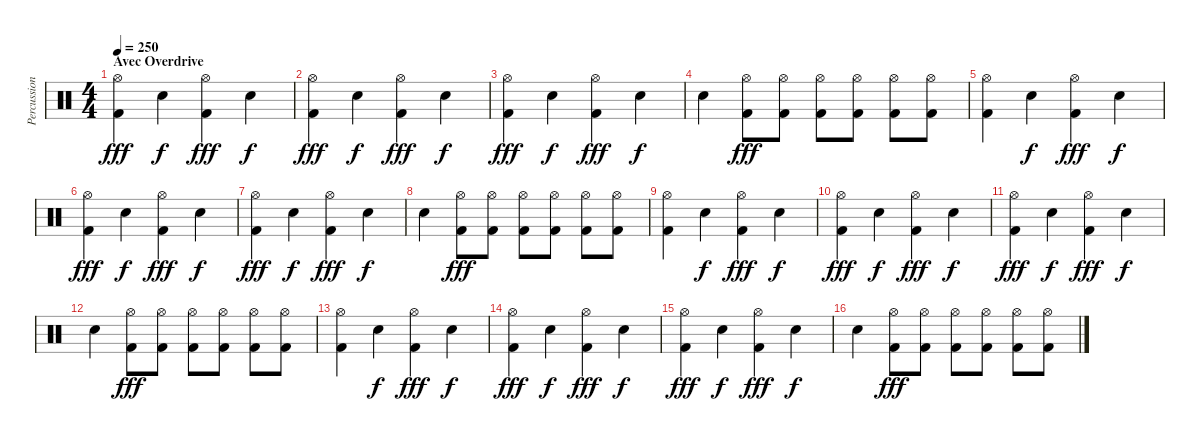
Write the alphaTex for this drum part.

\track ("Percussions" "Percussion") {instrument percussion}
\staff {score}
\articulation defaults
\ts (4 4)
\section ("" "Avec Overdrive")
\tempo 250
\clef neutral
\ks c
("Kick (hit) 2" "Hi-Hat (open)").4{dy fff} "Snare (hit) 2".4{dy f} ("Kick (hit) 2" "Hi-Hat (open)").4{dy fff} "Snare (hit) 2".4{dy f} |
("Kick (hit) 2" "Hi-Hat (open)").4{dy fff} "Snare (hit) 2".4{dy f} ("Kick (hit) 2" "Hi-Hat (open)").4{dy fff} "Snare (hit) 2".4{dy f} |
("Kick (hit) 2" "Hi-Hat (open)").4{dy fff} "Snare (hit) 2".4{dy f} ("Kick (hit) 2" "Hi-Hat (open)").4{dy fff} "Snare (hit) 2".4{dy f} |
"Snare (hit) 2".4 ("Kick (hit) 2" "Hi-Hat (open)").8{dy fff} ("Kick (hit) 2" "Hi-Hat (open)").8 ("Kick (hit) 2" "Hi-Hat (open)").8 ("Kick (hit) 2" "Hi-Hat (open)").8 ("Kick (hit) 2" "Hi-Hat (open)").8 ("Kick (hit) 2" "Hi-Hat (open)").8 |
("Kick (hit) 2" "Hi-Hat (open)").4 "Snare (hit) 2".4{dy f} ("Kick (hit) 2" "Hi-Hat (open)").4{dy fff} "Snare (hit) 2".4{dy f} |
("Kick (hit) 2" "Hi-Hat (open)").4{dy fff} "Snare (hit) 2".4{dy f} ("Kick (hit) 2" "Hi-Hat (open)").4{dy fff} "Snare (hit) 2".4{dy f} |
("Kick (hit) 2" "Hi-Hat (open)").4{dy fff} "Snare (hit) 2".4{dy f} ("Kick (hit) 2" "Hi-Hat (open)").4{dy fff} "Snare (hit) 2".4{dy f} |
"Snare (hit) 2".4 ("Kick (hit) 2" "Hi-Hat (open)").8{dy fff} ("Kick (hit) 2" "Hi-Hat (open)").8 ("Kick (hit) 2" "Hi-Hat (open)").8 ("Kick (hit) 2" "Hi-Hat (open)").8 ("Kick (hit) 2" "Hi-Hat (open)").8 ("Kick (hit) 2" "Hi-Hat (open)").8 |
("Kick (hit) 2" "Hi-Hat (open)").4 "Snare (hit) 2".4{dy f} ("Kick (hit) 2" "Hi-Hat (open)").4{dy fff} "Snare (hit) 2".4{dy f} |
("Kick (hit) 2" "Hi-Hat (open)").4{dy fff} "Snare (hit) 2".4{dy f} ("Kick (hit) 2" "Hi-Hat (open)").4{dy fff} "Snare (hit) 2".4{dy f} |
("Kick (hit) 2" "Hi-Hat (open)").4{dy fff} "Snare (hit) 2".4{dy f} ("Kick (hit) 2" "Hi-Hat (open)").4{dy fff} "Snare (hit) 2".4{dy f} |
"Snare (hit) 2".4 ("Kick (hit) 2" "Hi-Hat (open)").8{dy fff} ("Kick (hit) 2" "Hi-Hat (open)").8 ("Kick (hit) 2" "Hi-Hat (open)").8 ("Kick (hit) 2" "Hi-Hat (open)").8 ("Kick (hit) 2" "Hi-Hat (open)").8 ("Kick (hit) 2" "Hi-Hat (open)").8 |
("Kick (hit) 2" "Hi-Hat (open)").4 "Snare (hit) 2".4{dy f} ("Kick (hit) 2" "Hi-Hat (open)").4{dy fff} "Snare (hit) 2".4{dy f} |
("Kick (hit) 2" "Hi-Hat (open)").4{dy fff} "Snare (hit) 2".4{dy f} ("Kick (hit) 2" "Hi-Hat (open)").4{dy fff} "Snare (hit) 2".4{dy f} |
("Kick (hit) 2" "Hi-Hat (open)").4{dy fff} "Snare (hit) 2".4{dy f} ("Kick (hit) 2" "Hi-Hat (open)").4{dy fff} "Snare (hit) 2".4{dy f} |
"Snare (hit) 2".4 ("Kick (hit) 2" "Hi-Hat (open)").8{dy fff} ("Kick (hit) 2" "Hi-Hat (open)").8 ("Kick (hit) 2" "Hi-Hat (open)").8 ("Kick (hit) 2" "Hi-Hat (open)").8 ("Kick (hit) 2" "Hi-Hat (open)").8 ("Kick (hit) 2" "Hi-Hat (open)").8
